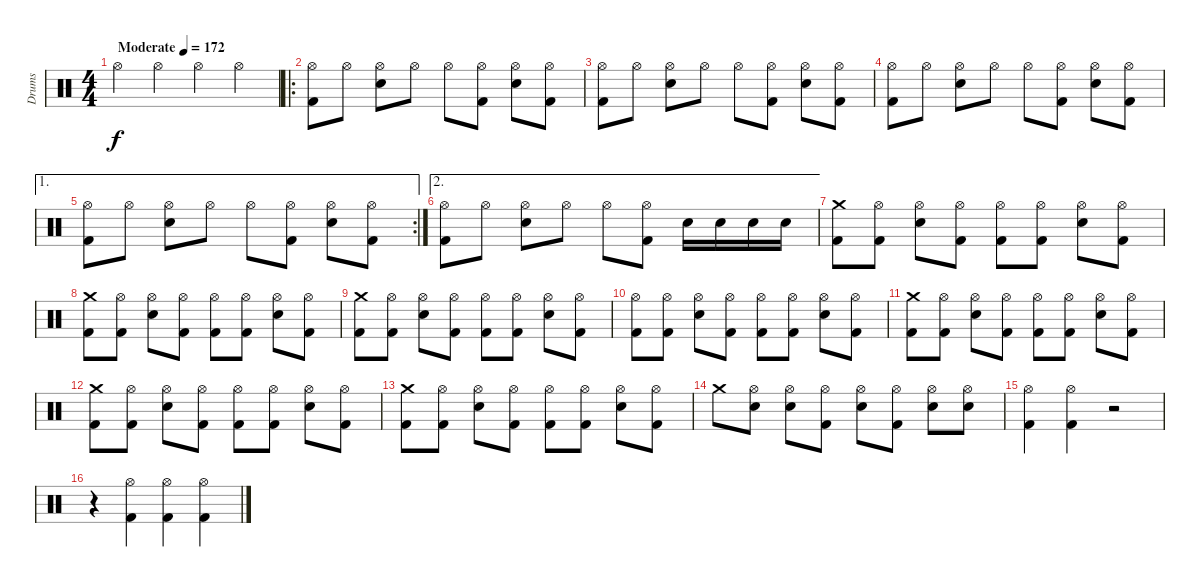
\track ("Drums" "Drums") {instrument percussion}
\staff {score}
\articulation defaults
\ts (4 4)
\tempo (172 "Moderate")
\clef neutral
\ks c "Hi-Hat (open)".4{dy f} "Hi-Hat (open)".4 "Hi-Hat (open)".4 "Hi-Hat (open)".4
|
\ro
("Hi-Hat (open)" "Kick (hit) 2").8 "Hi-Hat (open)".8 ("Hi-Hat (open)" "Electric Snare (hit)").8 "Hi-Hat (open)".8 "Hi-Hat (open)".8 ("Hi-Hat (open)" "Kick (hit) 2").8 ("Hi-Hat (open)" "Electric Snare (hit)").8 ("Hi-Hat (open)" "Kick (hit) 2").8 |
("Hi-Hat (open)" "Kick (hit) 2").8 "Hi-Hat (open)".8 ("Hi-Hat (open)" "Electric Snare (hit)").8 "Hi-Hat (open)".8 "Hi-Hat (open)".8 ("Hi-Hat (open)" "Kick (hit) 2").8 ("Hi-Hat (open)" "Electric Snare (hit)").8 ("Hi-Hat (open)" "Kick (hit) 2").8 |
("Hi-Hat (open)" "Kick (hit) 2").8 "Hi-Hat (open)".8 ("Hi-Hat (open)" "Electric Snare (hit)").8 "Hi-Hat (open)".8 "Hi-Hat (open)".8 ("Hi-Hat (open)" "Kick (hit) 2").8 ("Hi-Hat (open)" "Electric Snare (hit)").8 ("Hi-Hat (open)" "Kick (hit) 2").8 |
\ae 1
\rc 2
("Hi-Hat (open)" "Kick (hit) 2").8 "Hi-Hat (open)".8 ("Hi-Hat (open)" "Electric Snare (hit)").8 "Hi-Hat (open)".8 "Hi-Hat (open)".8 ("Hi-Hat (open)" "Kick (hit) 2").8 ("Hi-Hat (open)" "Electric Snare (hit)").8 ("Hi-Hat (open)" "Kick (hit) 2").8 |
\ae 2
("Hi-Hat (open)" "Kick (hit) 2").8 "Hi-Hat (open)".8 ("Hi-Hat (open)" "Electric Snare (hit)").8 "Hi-Hat (open)".8 "Hi-Hat (open)".8 ("Hi-Hat (open)" "Kick (hit) 2").8 "Electric Snare (hit)".16 "Electric Snare (hit)".16 "Electric Snare (hit)".16 "Electric Snare (hit)".16 |
("Crash medium (hit)" "Kick (hit) 2").8 ("Hi-Hat (open)" "Kick (hit) 2").8 ("Hi-Hat (open)" "Electric Snare (hit)").8 ("Hi-Hat (open)" "Kick (hit) 2").8 ("Hi-Hat (open)" "Kick (hit) 2").8 ("Hi-Hat (open)" "Kick (hit) 2").8 ("Hi-Hat (open)" "Electric Snare (hit)").8 ("Hi-Hat (open)" "Kick (hit) 2").8 |
("Crash medium (hit)" "Kick (hit) 2").8 ("Hi-Hat (open)" "Kick (hit) 2").8 ("Hi-Hat (open)" "Electric Snare (hit)").8 ("Hi-Hat (open)" "Kick (hit) 2").8 ("Hi-Hat (open)" "Kick (hit) 2").8 ("Hi-Hat (open)" "Kick (hit) 2").8 ("Hi-Hat (open)" "Electric Snare (hit)").8 ("Hi-Hat (open)" "Kick (hit) 2").8 |
("Crash medium (hit)" "Kick (hit) 2").8 ("Hi-Hat (open)" "Kick (hit) 2").8 ("Hi-Hat (open)" "Electric Snare (hit)").8 ("Hi-Hat (open)" "Kick (hit) 2").8 ("Hi-Hat (open)" "Kick (hit) 2").8 ("Hi-Hat (open)" "Kick (hit) 2").8 ("Hi-Hat (open)" "Electric Snare (hit)").8 ("Hi-Hat (open)" "Kick (hit) 2").8 |
("Hi-Hat (open)" "Kick (hit) 2").8 ("Hi-Hat (open)" "Kick (hit) 2").8 ("Hi-Hat (open)" "Electric Snare (hit)").8 ("Hi-Hat (open)" "Kick (hit) 2").8 ("Hi-Hat (open)" "Kick (hit) 2").8 ("Hi-Hat (open)" "Kick (hit) 2").8 ("Hi-Hat (open)" "Electric Snare (hit)").8 ("Hi-Hat (open)" "Kick (hit) 2").8 |
("Crash medium (hit)" "Kick (hit) 2").8 ("Hi-Hat (open)" "Kick (hit) 2").8 ("Hi-Hat (open)" "Electric Snare (hit)").8 ("Hi-Hat (open)" "Kick (hit) 2").8 ("Hi-Hat (open)" "Kick (hit) 2").8 ("Hi-Hat (open)" "Kick (hit) 2").8 ("Hi-Hat (open)" "Electric Snare (hit)").8 ("Hi-Hat (open)" "Kick (hit) 2").8 |
("Crash medium (hit)" "Kick (hit) 2").8 ("Hi-Hat (open)" "Kick (hit) 2").8 ("Hi-Hat (open)" "Electric Snare (hit)").8 ("Hi-Hat (open)" "Kick (hit) 2").8 ("Hi-Hat (open)" "Kick (hit) 2").8 ("Hi-Hat (open)" "Kick (hit) 2").8 ("Hi-Hat (open)" "Electric Snare (hit)").8 ("Hi-Hat (open)" "Kick (hit) 2").8 |
("Crash medium (hit)" "Kick (hit) 2").8 ("Hi-Hat (open)" "Kick (hit) 2").8 ("Hi-Hat (open)" "Electric Snare (hit)").8 ("Hi-Hat (open)" "Kick (hit) 2").8 ("Hi-Hat (open)" "Kick (hit) 2").8 ("Hi-Hat (open)" "Kick (hit) 2").8 ("Hi-Hat (open)" "Electric Snare (hit)").8 ("Hi-Hat (open)" "Kick (hit) 2").8 |
"Crash medium (hit)".8 ("Hi-Hat (open)" "Electric Snare (hit)").8 ("Hi-Hat (open)" "Electric Snare (hit)").8 ("Hi-Hat (open)" "Kick (hit) 2").8 ("Hi-Hat (open)" "Electric Snare (hit)").8 ("Hi-Hat (open)" "Kick (hit) 2").8 ("Hi-Hat (open)" "Electric Snare (hit)").8 ("Hi-Hat (open)" "Electric Snare (hit)").8 |
("Hi-Hat (open)" "Kick (hit) 2").4 ("Hi-Hat (open)" "Kick (hit) 2").4 r.2 |
r.4 ("Hi-Hat (open)" "Kick (hit) 2").4 ("Hi-Hat (open)" "Kick (hit) 2").4 ("Hi-Hat (open)" "Kick (hit) 2").4
